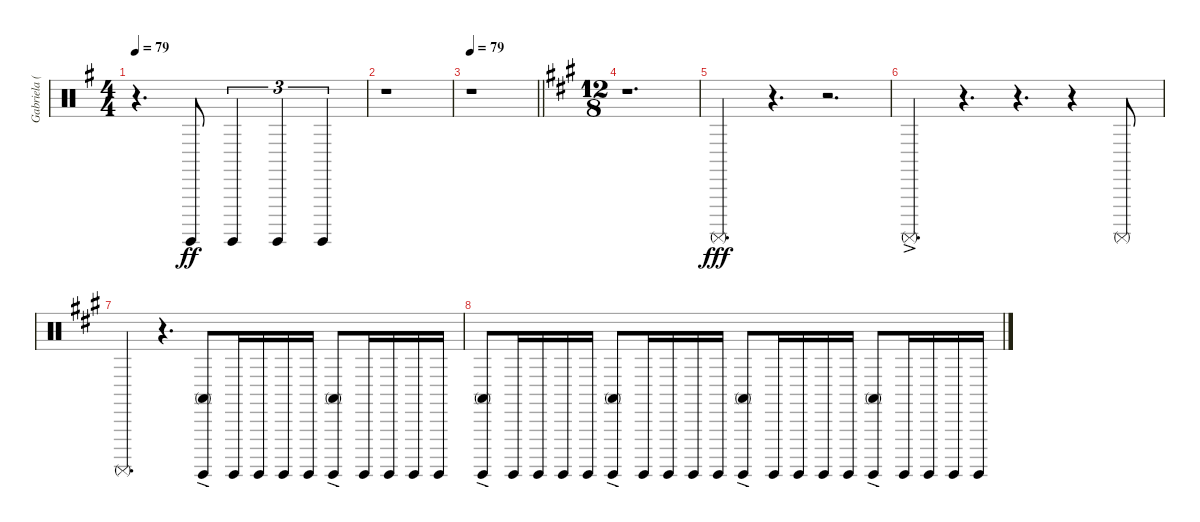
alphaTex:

\track ("Gabriela (Percussion)" "Gabriela (") {instrument percussion}
\staff {score}
\articulation defaults
\ts (4 4)
\tempo 79
\clef neutral
\ks eminor
r.4{d dy ff} "Surdo (hit)".8 "Surdo (hit)".4{tu (3 2)} "Surdo (hit)".4{tu (3 2)} "Surdo (hit)".4{tu (3 2)} |
r.1 |
\tempo 79
\barLineRight lightlight
r.1 |
\ts (12 8)
\ks f#minor
r.1{d} |
"Surdo (mute)".4{d dy fff} r.4{d} r.2{d} |
"Surdo (mute)"{ac}.4{d} r.4{d} r.4{d} r.4 "Surdo (mute)".8 |
"Surdo (mute)".4{d} r.4{d} ("Conga high (mute)" "Surdo (hit)"{ac}).8 "Surdo (hit)".16 "Surdo (hit)".16 "Surdo (hit)".16 "Surdo (hit)".16 ("Conga high (mute)" "Surdo (hit)"{ac}).8 "Surdo (hit)".16 "Surdo (hit)".16 "Surdo (hit)".16 "Surdo (hit)".16 |
("Conga high (mute)" "Surdo (hit)"{ac}).8 "Surdo (hit)".16 "Surdo (hit)".16 "Surdo (hit)".16 "Surdo (hit)".16 ("Conga high (mute)" "Surdo (hit)"{ac}).8 "Surdo (hit)".16 "Surdo (hit)".16 "Surdo (hit)".16 "Surdo (hit)".16 ("Conga high (mute)" "Surdo (hit)"{ac}).8 "Surdo (hit)".16 "Surdo (hit)".16 "Surdo (hit)".16 "Surdo (hit)".16 ("Conga high (mute)" "Surdo (hit)"{ac}).8 "Surdo (hit)".16 "Surdo (hit)".16 "Surdo (hit)".16 "Surdo (hit)".16
